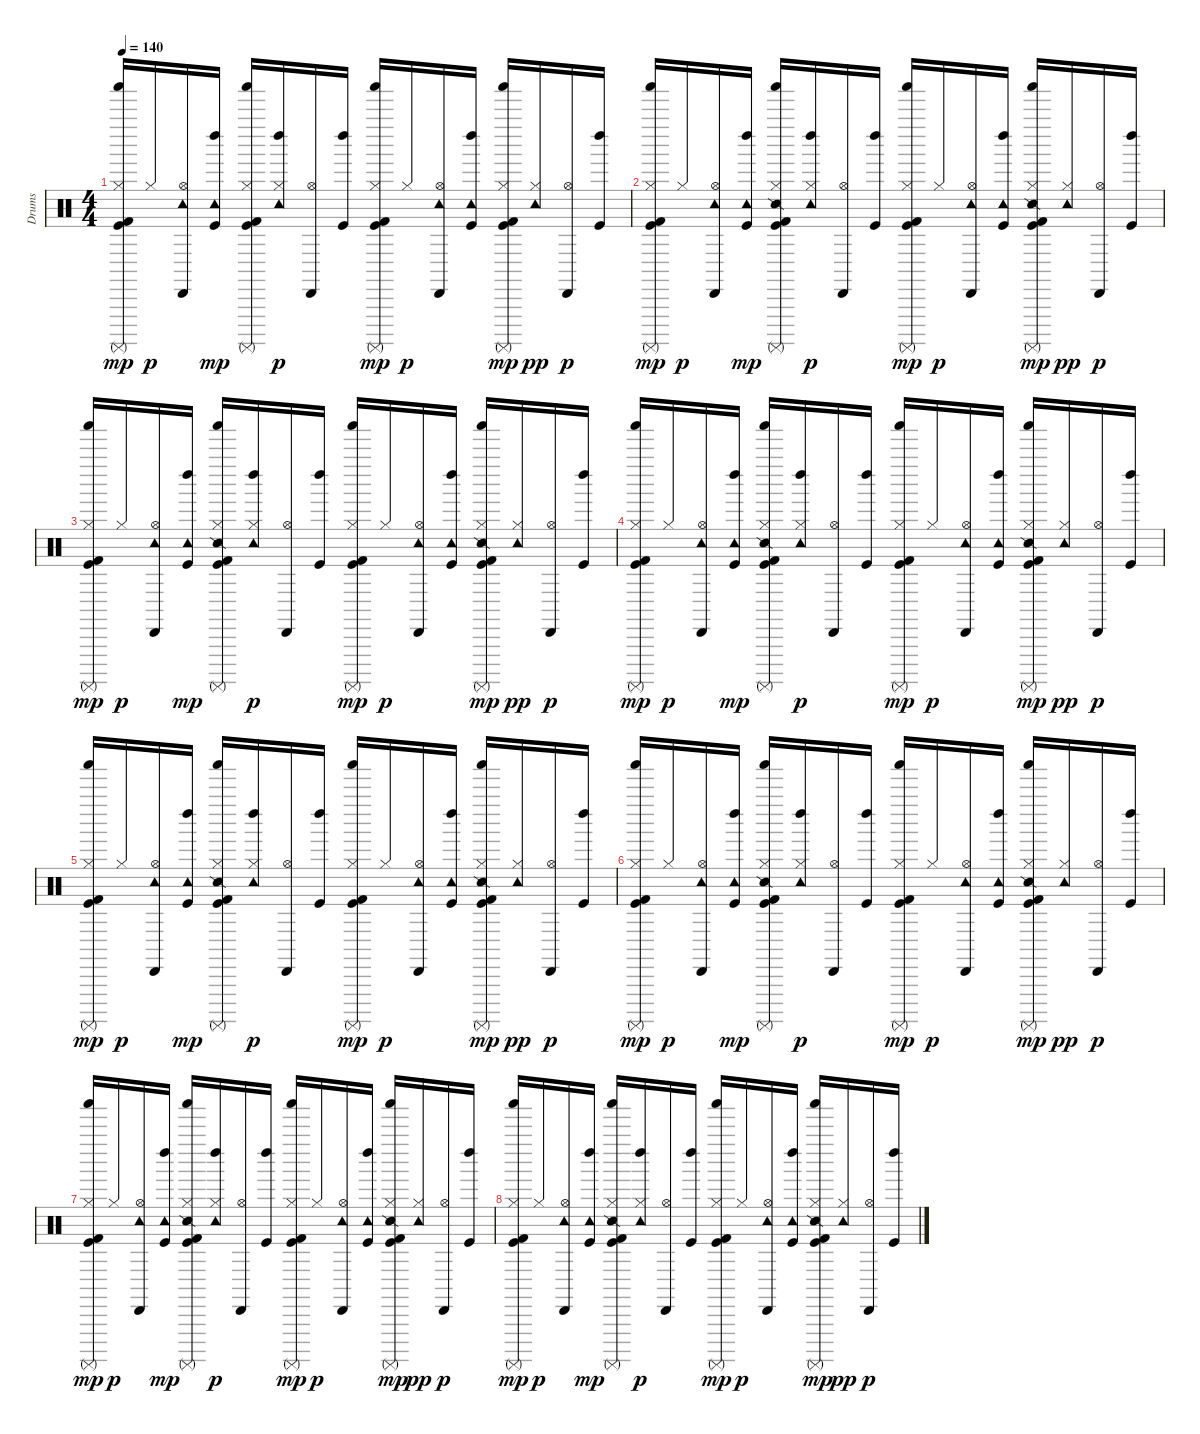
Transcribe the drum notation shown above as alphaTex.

\track ("Drums" "Drums") {instrument percussion}
\staff {score}
\articulation defaults
\ts (4 4)
\tempo 140
\clef neutral
\ks c
("Kick (hit)" "Kick (hit) 2" "Hi-Hat (closed)" "Shaker (hit)" "Surdo (mute)").16{dy mp} "Hi-Hat (closed)".16{dy p} ("Hi-Hat (open)" "Tambourine (hit)" "Cabasa (hit)").16 ("Kick (hit)" "Tambourine (hit)" "Left Maraca (hit)").16{dy mp} ("Kick (hit)" "Kick (hit) 2" "Hi-Hat (closed)" "Shaker (hit)" "Surdo (mute)").16 ("Hi-Hat (closed)" "Tambourine (hit)" "Left Maraca (hit)").16{dy p} ("Hi-Hat (open)" "Cabasa (hit)").16 ("Kick (hit)" "Left Maraca (hit)").16 ("Kick (hit)" "Kick (hit) 2" "Hi-Hat (closed)" "Shaker (hit)" "Surdo (mute)").16{dy mp} "Hi-Hat (closed)".16{dy p} ("Hi-Hat (open)" "Tambourine (hit)" "Cabasa (hit)").16 ("Kick (hit)" "Tambourine (hit)" "Left Maraca (hit)").16 ("Kick (hit)" "Kick (hit) 2" "Hi-Hat (closed)" "Shaker (hit)" "Surdo (mute)").16{dy mp} ("Hi-Hat (closed)" "Tambourine (hit)").16{dy pp} ("Hi-Hat (open)" "Cabasa (hit)").16{dy p} ("Kick (hit)" "Left Maraca (hit)").16 |
("Kick (hit)" "Kick (hit) 2" "Hi-Hat (closed)" "Shaker (hit)" "Surdo (mute)").16{dy mp} "Hi-Hat (closed)".16{dy p} ("Hi-Hat (open)" "Tambourine (hit)" "Cabasa (hit)").16 ("Kick (hit)" "Tambourine (hit)" "Left Maraca (hit)").16{dy mp} ("Snare (side stick) 2" "Kick (hit)" "Kick (hit) 2" "Hi-Hat (closed)" "Shaker (hit)" "Surdo (mute)").16 ("Hi-Hat (closed)" "Tambourine (hit)" "Left Maraca (hit)").16{dy p} ("Hi-Hat (open)" "Cabasa (hit)").16 ("Kick (hit)" "Left Maraca (hit)").16 ("Kick (hit)" "Kick (hit) 2" "Hi-Hat (closed)" "Shaker (hit)" "Surdo (mute)").16{dy mp} "Hi-Hat (closed)".16{dy p} ("Hi-Hat (open)" "Tambourine (hit)" "Cabasa (hit)").16 ("Kick (hit)" "Tambourine (hit)" "Left Maraca (hit)").16 ("Snare (side stick) 2" "Kick (hit)" "Kick (hit) 2" "Hi-Hat (closed)" "Shaker (hit)" "Surdo (mute)").16{dy mp} ("Hi-Hat (closed)" "Tambourine (hit)").16{dy pp} ("Hi-Hat (open)" "Cabasa (hit)").16{dy p} ("Kick (hit)" "Left Maraca (hit)").16 |
("Kick (hit)" "Kick (hit) 2" "Hi-Hat (closed)" "Shaker (hit)" "Surdo (mute)").16{dy mp} "Hi-Hat (closed)".16{dy p} ("Hi-Hat (open)" "Tambourine (hit)" "Cabasa (hit)").16 ("Kick (hit)" "Tambourine (hit)" "Left Maraca (hit)").16{dy mp} ("Snare (side stick) 2" "Kick (hit)" "Kick (hit) 2" "Hi-Hat (closed)" "Shaker (hit)" "Surdo (mute)").16 ("Hi-Hat (closed)" "Tambourine (hit)" "Left Maraca (hit)").16{dy p} ("Hi-Hat (open)" "Cabasa (hit)").16 ("Kick (hit)" "Left Maraca (hit)").16 ("Kick (hit)" "Kick (hit) 2" "Hi-Hat (closed)" "Shaker (hit)" "Surdo (mute)").16{dy mp} "Hi-Hat (closed)".16{dy p} ("Hi-Hat (open)" "Tambourine (hit)" "Cabasa (hit)").16 ("Kick (hit)" "Tambourine (hit)" "Left Maraca (hit)").16 ("Snare (side stick) 2" "Kick (hit)" "Kick (hit) 2" "Hi-Hat (closed)" "Shaker (hit)" "Surdo (mute)").16{dy mp} ("Hi-Hat (closed)" "Tambourine (hit)").16{dy pp} ("Hi-Hat (open)" "Cabasa (hit)").16{dy p} ("Kick (hit)" "Left Maraca (hit)").16 |
("Kick (hit)" "Kick (hit) 2" "Hi-Hat (closed)" "Shaker (hit)" "Surdo (mute)").16{dy mp} "Hi-Hat (closed)".16{dy p} ("Hi-Hat (open)" "Tambourine (hit)" "Cabasa (hit)").16 ("Kick (hit)" "Tambourine (hit)" "Left Maraca (hit)").16{dy mp} ("Snare (side stick) 2" "Kick (hit)" "Kick (hit) 2" "Hi-Hat (closed)" "Shaker (hit)" "Surdo (mute)").16 ("Hi-Hat (closed)" "Tambourine (hit)" "Left Maraca (hit)").16{dy p} ("Hi-Hat (open)" "Cabasa (hit)").16 ("Kick (hit)" "Left Maraca (hit)").16 ("Kick (hit)" "Kick (hit) 2" "Hi-Hat (closed)" "Shaker (hit)" "Surdo (mute)").16{dy mp} "Hi-Hat (closed)".16{dy p} ("Hi-Hat (open)" "Tambourine (hit)" "Cabasa (hit)").16 ("Kick (hit)" "Tambourine (hit)" "Left Maraca (hit)").16 ("Snare (side stick) 2" "Kick (hit)" "Kick (hit) 2" "Hi-Hat (closed)" "Shaker (hit)" "Surdo (mute)").16{dy mp} ("Hi-Hat (closed)" "Tambourine (hit)").16{dy pp} ("Hi-Hat (open)" "Cabasa (hit)").16{dy p} ("Kick (hit)" "Left Maraca (hit)").16 |
("Kick (hit)" "Kick (hit) 2" "Hi-Hat (closed)" "Shaker (hit)" "Surdo (mute)").16{dy mp} "Hi-Hat (closed)".16{dy p} ("Hi-Hat (open)" "Tambourine (hit)" "Cabasa (hit)").16 ("Kick (hit)" "Tambourine (hit)" "Left Maraca (hit)").16{dy mp} ("Snare (side stick) 2" "Kick (hit)" "Kick (hit) 2" "Hi-Hat (closed)" "Shaker (hit)" "Surdo (mute)").16 ("Hi-Hat (closed)" "Tambourine (hit)" "Left Maraca (hit)").16{dy p} ("Hi-Hat (open)" "Cabasa (hit)").16 ("Kick (hit)" "Left Maraca (hit)").16 ("Kick (hit)" "Kick (hit) 2" "Hi-Hat (closed)" "Shaker (hit)" "Surdo (mute)").16{dy mp} "Hi-Hat (closed)".16{dy p} ("Hi-Hat (open)" "Tambourine (hit)" "Cabasa (hit)").16 ("Kick (hit)" "Tambourine (hit)" "Left Maraca (hit)").16 ("Snare (side stick) 2" "Kick (hit)" "Kick (hit) 2" "Hi-Hat (closed)" "Shaker (hit)" "Surdo (mute)").16{dy mp} ("Hi-Hat (closed)" "Tambourine (hit)").16{dy pp} ("Hi-Hat (open)" "Cabasa (hit)").16{dy p} ("Kick (hit)" "Left Maraca (hit)").16 |
("Kick (hit)" "Kick (hit) 2" "Hi-Hat (closed)" "Shaker (hit)" "Surdo (mute)").16{dy mp} "Hi-Hat (closed)".16{dy p} ("Hi-Hat (open)" "Tambourine (hit)" "Cabasa (hit)").16 ("Kick (hit)" "Tambourine (hit)" "Left Maraca (hit)").16{dy mp} ("Snare (side stick) 2" "Kick (hit)" "Kick (hit) 2" "Hi-Hat (closed)" "Shaker (hit)" "Surdo (mute)").16 ("Hi-Hat (closed)" "Tambourine (hit)" "Left Maraca (hit)").16{dy p} ("Hi-Hat (open)" "Cabasa (hit)").16 ("Kick (hit)" "Left Maraca (hit)").16 ("Kick (hit)" "Kick (hit) 2" "Hi-Hat (closed)" "Shaker (hit)" "Surdo (mute)").16{dy mp} "Hi-Hat (closed)".16{dy p} ("Hi-Hat (open)" "Tambourine (hit)" "Cabasa (hit)").16 ("Kick (hit)" "Tambourine (hit)" "Left Maraca (hit)").16 ("Snare (side stick) 2" "Kick (hit)" "Kick (hit) 2" "Hi-Hat (closed)" "Shaker (hit)" "Surdo (mute)").16{dy mp} ("Hi-Hat (closed)" "Tambourine (hit)").16{dy pp} ("Hi-Hat (open)" "Cabasa (hit)").16{dy p} ("Kick (hit)" "Left Maraca (hit)").16 |
("Kick (hit)" "Kick (hit) 2" "Hi-Hat (closed)" "Shaker (hit)" "Surdo (mute)").16{dy mp} "Hi-Hat (closed)".16{dy p} ("Hi-Hat (open)" "Tambourine (hit)" "Cabasa (hit)").16 ("Kick (hit)" "Tambourine (hit)" "Left Maraca (hit)").16{dy mp} ("Snare (side stick) 2" "Kick (hit)" "Kick (hit) 2" "Hi-Hat (closed)" "Shaker (hit)" "Surdo (mute)").16 ("Hi-Hat (closed)" "Tambourine (hit)" "Left Maraca (hit)").16{dy p} ("Hi-Hat (open)" "Cabasa (hit)").16 ("Kick (hit)" "Left Maraca (hit)").16 ("Kick (hit)" "Kick (hit) 2" "Hi-Hat (closed)" "Shaker (hit)" "Surdo (mute)").16{dy mp} "Hi-Hat (closed)".16{dy p} ("Hi-Hat (open)" "Tambourine (hit)" "Cabasa (hit)").16 ("Kick (hit)" "Tambourine (hit)" "Left Maraca (hit)").16 ("Snare (side stick) 2" "Kick (hit)" "Kick (hit) 2" "Hi-Hat (closed)" "Shaker (hit)" "Surdo (mute)").16{dy mp} ("Hi-Hat (closed)" "Tambourine (hit)").16{dy pp} ("Hi-Hat (open)" "Cabasa (hit)").16{dy p} ("Kick (hit)" "Left Maraca (hit)").16 |
("Kick (hit)" "Kick (hit) 2" "Hi-Hat (closed)" "Shaker (hit)" "Surdo (mute)").16{dy mp} "Hi-Hat (closed)".16{dy p} ("Hi-Hat (open)" "Tambourine (hit)" "Cabasa (hit)").16 ("Kick (hit)" "Tambourine (hit)" "Left Maraca (hit)").16{dy mp} ("Snare (side stick) 2" "Kick (hit)" "Kick (hit) 2" "Hi-Hat (closed)" "Shaker (hit)" "Surdo (mute)").16 ("Hi-Hat (closed)" "Tambourine (hit)" "Left Maraca (hit)").16{dy p} ("Hi-Hat (open)" "Cabasa (hit)").16 ("Kick (hit)" "Left Maraca (hit)").16 ("Kick (hit)" "Kick (hit) 2" "Hi-Hat (closed)" "Shaker (hit)" "Surdo (mute)").16{dy mp} "Hi-Hat (closed)".16{dy p} ("Hi-Hat (open)" "Tambourine (hit)" "Cabasa (hit)").16 ("Kick (hit)" "Tambourine (hit)" "Left Maraca (hit)").16 ("Snare (side stick) 2" "Kick (hit)" "Kick (hit) 2" "Hi-Hat (closed)" "Shaker (hit)" "Surdo (mute)").16{dy mp} ("Hi-Hat (closed)" "Tambourine (hit)").16{dy pp} ("Hi-Hat (open)" "Cabasa (hit)").16{dy p} ("Kick (hit)" "Left Maraca (hit)").16
